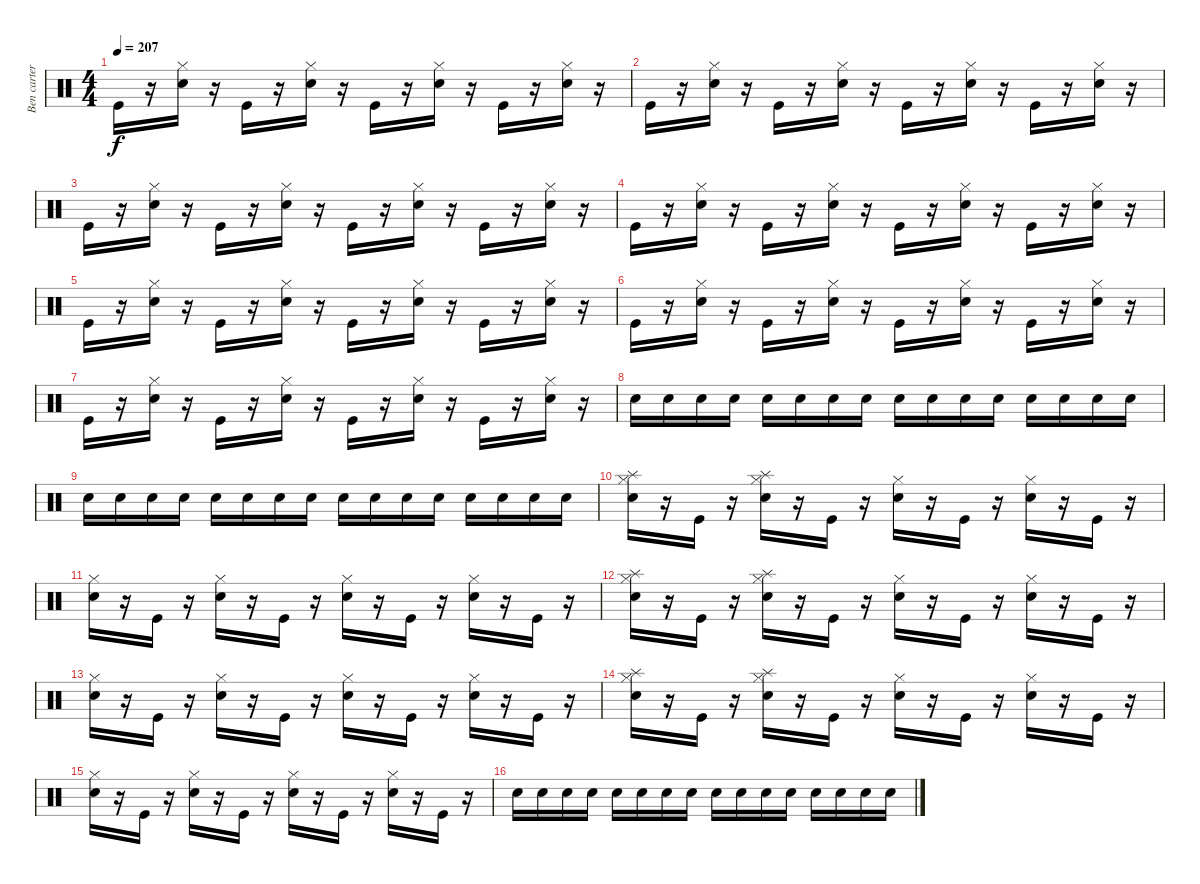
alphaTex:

\track ("Ben carter" "Ben carter") {instrument percussion}
\staff {score}
\articulation defaults
\ts (4 4)
\tempo 207
\clef neutral
\ks c "Kick (hit)".16{dy f}
r.16 ("Hi-Hat (closed)" "Electric Snare (hit)").16 r.16 "Kick (hit)".16 r.16 ("Hi-Hat (closed)" "Electric Snare (hit)").16 r.16 "Kick (hit)".16 r.16 ("Hi-Hat (closed)" "Electric Snare (hit)").16 r.16 "Kick (hit)".16 r.16 ("Hi-Hat (closed)" "Electric Snare (hit)").16 r.16 |
"Kick (hit)".16 r.16 ("Hi-Hat (closed)" "Electric Snare (hit)").16 r.16 "Kick (hit)".16 r.16 ("Hi-Hat (closed)" "Electric Snare (hit)").16 r.16 "Kick (hit)".16 r.16 ("Hi-Hat (closed)" "Electric Snare (hit)").16 r.16 "Kick (hit)".16 r.16 ("Hi-Hat (closed)" "Electric Snare (hit)").16 r.16 |
"Kick (hit)".16 r.16 ("Hi-Hat (closed)" "Electric Snare (hit)").16 r.16 "Kick (hit)".16 r.16 ("Hi-Hat (closed)" "Electric Snare (hit)").16 r.16 "Kick (hit)".16 r.16 ("Hi-Hat (closed)" "Electric Snare (hit)").16 r.16 "Kick (hit)".16 r.16 ("Hi-Hat (closed)" "Electric Snare (hit)").16 r.16 |
"Kick (hit)".16 r.16 ("Hi-Hat (closed)" "Electric Snare (hit)").16 r.16 "Kick (hit)".16 r.16 ("Hi-Hat (closed)" "Electric Snare (hit)").16 r.16 "Kick (hit)".16 r.16 ("Hi-Hat (closed)" "Electric Snare (hit)").16 r.16 "Kick (hit)".16 r.16 ("Hi-Hat (closed)" "Electric Snare (hit)").16 r.16 |
"Kick (hit)".16 r.16 ("Hi-Hat (closed)" "Electric Snare (hit)").16 r.16 "Kick (hit)".16 r.16 ("Hi-Hat (closed)" "Electric Snare (hit)").16 r.16 "Kick (hit)".16 r.16 ("Hi-Hat (closed)" "Electric Snare (hit)").16 r.16 "Kick (hit)".16 r.16 ("Hi-Hat (closed)" "Electric Snare (hit)").16 r.16 |
"Kick (hit)".16 r.16 ("Hi-Hat (closed)" "Electric Snare (hit)").16 r.16 "Kick (hit)".16 r.16 ("Hi-Hat (closed)" "Electric Snare (hit)").16 r.16 "Kick (hit)".16 r.16 ("Hi-Hat (closed)" "Electric Snare (hit)").16 r.16 "Kick (hit)".16 r.16 ("Hi-Hat (closed)" "Electric Snare (hit)").16 r.16 |
"Kick (hit)".16 r.16 ("Hi-Hat (closed)" "Electric Snare (hit)").16 r.16 "Kick (hit)".16 r.16 ("Hi-Hat (closed)" "Electric Snare (hit)").16 r.16 "Kick (hit)".16 r.16 ("Hi-Hat (closed)" "Electric Snare (hit)").16 r.16 "Kick (hit)".16 r.16 ("Hi-Hat (closed)" "Electric Snare (hit)").16 r.16 |
"Snare (hit) 2".16 "Snare (hit) 2".16 "Snare (hit) 2".16 "Snare (hit) 2".16 "Snare (hit) 2".16 "Snare (hit) 2".16 "Snare (hit) 2".16 "Snare (hit) 2".16 "Snare (hit) 2".16 "Snare (hit) 2".16 "Snare (hit) 2".16 "Snare (hit) 2".16 "Snare (hit) 2".16 "Snare (hit) 2".16 "Snare (hit) 2".16 "Snare (hit) 2".16 |
"Snare (hit) 2".16 "Snare (hit) 2".16 "Snare (hit) 2".16 "Snare (hit) 2".16 "Snare (hit) 2".16 "Snare (hit) 2".16 "Snare (hit) 2".16 "Snare (hit) 2".16 "Snare (hit) 2".16 "Snare (hit) 2".16 "Snare (hit) 2".16 "Snare (hit) 2".16 "Snare (hit) 2".16 "Snare (hit) 2".16 "Snare (hit) 2".16 "Snare (hit) 2".16 |
("Hi-Hat (closed)" "Electric Snare (hit)" "Splash (hit)").16 r.16 "Kick (hit)".16 r.16 ("Hi-Hat (closed)" "Electric Snare (hit)" "Splash (hit)").16 r.16 "Kick (hit)".16 r.16 ("Hi-Hat (closed)" "Electric Snare (hit)").16 r.16 "Kick (hit)".16 r.16 ("Hi-Hat (closed)" "Electric Snare (hit)").16 r.16 "Kick (hit)".16 r.16 |
("Hi-Hat (closed)" "Electric Snare (hit)").16 r.16 "Kick (hit)".16 r.16 ("Hi-Hat (closed)" "Electric Snare (hit)").16 r.16 "Kick (hit)".16 r.16 ("Hi-Hat (closed)" "Electric Snare (hit)").16 r.16 "Kick (hit)".16 r.16 ("Hi-Hat (closed)" "Electric Snare (hit)").16 r.16 "Kick (hit)".16 r.16 |
("Hi-Hat (closed)" "Electric Snare (hit)" "Splash (hit)").16 r.16 "Kick (hit)".16 r.16 ("Hi-Hat (closed)" "Electric Snare (hit)" "Splash (hit)").16 r.16 "Kick (hit)".16 r.16 ("Hi-Hat (closed)" "Electric Snare (hit)").16 r.16 "Kick (hit)".16 r.16 ("Hi-Hat (closed)" "Electric Snare (hit)").16 r.16 "Kick (hit)".16 r.16 |
("Hi-Hat (closed)" "Electric Snare (hit)").16 r.16 "Kick (hit)".16 r.16 ("Hi-Hat (closed)" "Electric Snare (hit)").16 r.16 "Kick (hit)".16 r.16 ("Hi-Hat (closed)" "Electric Snare (hit)").16 r.16 "Kick (hit)".16 r.16 ("Hi-Hat (closed)" "Electric Snare (hit)").16 r.16 "Kick (hit)".16 r.16 |
("Hi-Hat (closed)" "Electric Snare (hit)" "Splash (hit)").16 r.16 "Kick (hit)".16 r.16 ("Hi-Hat (closed)" "Electric Snare (hit)" "Splash (hit)").16 r.16 "Kick (hit)".16 r.16 ("Hi-Hat (closed)" "Electric Snare (hit)").16 r.16 "Kick (hit)".16 r.16 ("Hi-Hat (closed)" "Electric Snare (hit)").16 r.16 "Kick (hit)".16 r.16 |
("Hi-Hat (closed)" "Electric Snare (hit)").16 r.16 "Kick (hit)".16 r.16 ("Hi-Hat (closed)" "Electric Snare (hit)").16 r.16 "Kick (hit)".16 r.16 ("Hi-Hat (closed)" "Electric Snare (hit)").16 r.16 "Kick (hit)".16 r.16 ("Hi-Hat (closed)" "Electric Snare (hit)").16 r.16 "Kick (hit)".16 r.16 |
"Snare (hit) 2".16 "Snare (hit) 2".16 "Snare (hit) 2".16 "Snare (hit) 2".16 "Snare (hit) 2".16 "Snare (hit) 2".16 "Snare (hit) 2".16 "Snare (hit) 2".16 "Snare (hit) 2".16 "Snare (hit) 2".16 "Snare (hit) 2".16 "Snare (hit) 2".16 "Snare (hit) 2".16 "Snare (hit) 2".16 "Snare (hit) 2".16 "Snare (hit) 2".16
